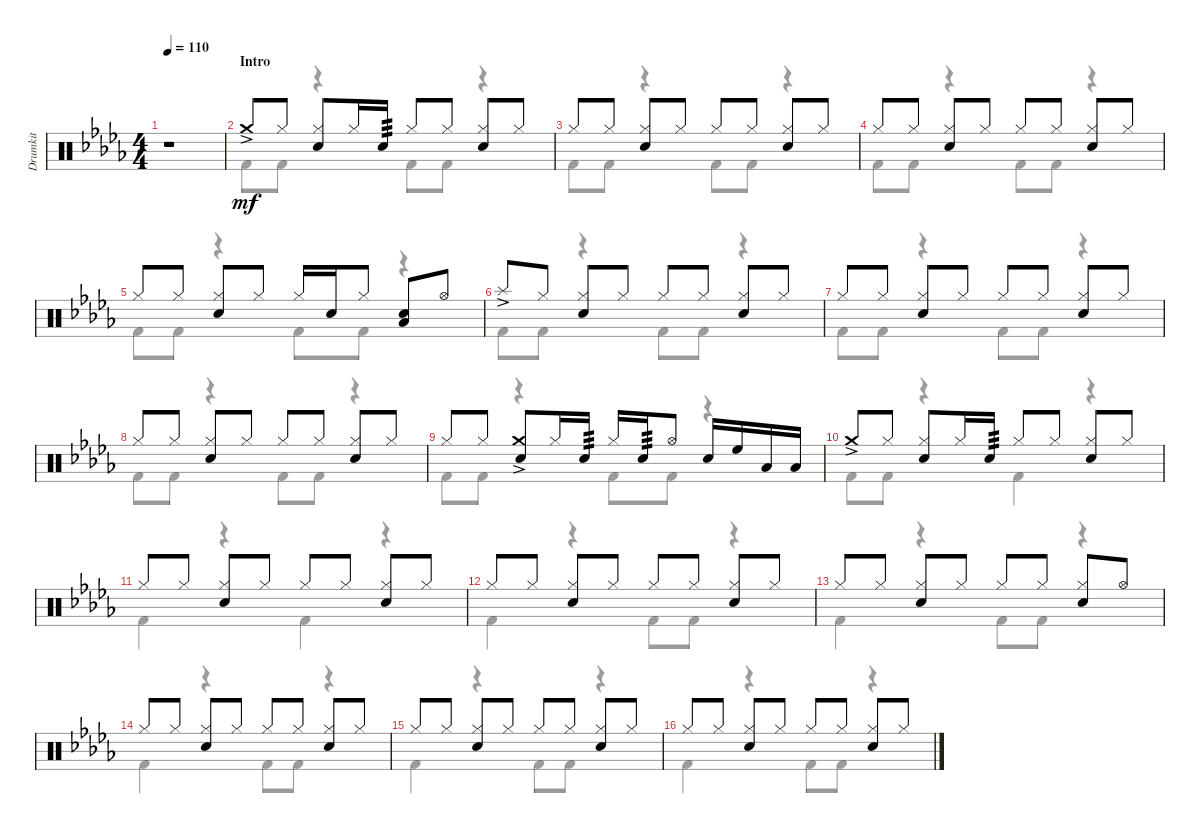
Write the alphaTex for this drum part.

\track ("Drumkit" "Drumkit") {instrument percussion}
\staff {score}
\articulation defaults
\voice
\ts (4 4)
\tempo 110
\clef neutral
\ks db
r.1{dy mf} |
\section ("" "Intro")
"Crash medium (hit)"{ac}.8 "Hi-Hat (closed)".8 ("Snare (hit) 2" "Hi-Hat (closed)").8 "Hi-Hat (closed)".16 "Snare (hit) 2".16{tp 3} "Hi-Hat (closed)".8 "Hi-Hat (closed)".8 ("Snare (hit) 2" "Hi-Hat (closed)").8 "Hi-Hat (closed)".8 |
"Hi-Hat (closed)".8 "Hi-Hat (closed)".8 ("Snare (hit) 2" "Hi-Hat (closed)").8 "Hi-Hat (closed)".8 "Hi-Hat (closed)".8 "Hi-Hat (closed)".8 ("Snare (hit) 2" "Hi-Hat (closed)").8 "Hi-Hat (closed)".8 |
"Hi-Hat (closed)".8 "Hi-Hat (closed)".8 ("Snare (hit) 2" "Hi-Hat (closed)").8 "Hi-Hat (closed)".8 "Hi-Hat (closed)".8 "Hi-Hat (closed)".8 ("Snare (hit) 2" "Hi-Hat (closed)").8 "Hi-Hat (closed)".8 |
"Hi-Hat (closed)".8 "Hi-Hat (closed)".8 ("Snare (hit) 2" "Hi-Hat (closed)").8 "Hi-Hat (closed)".8 "Hi-Hat (closed)".16 "Snare (hit) 2".16 "Hi-Hat (closed)".8 ("Snare (hit) 2" "Low Floor Tom (hit)").8 "Hi-Hat (open)".8 |
"Splash (hit)"{ac}.8 "Hi-Hat (closed)".8 ("Hi-Hat (closed)" "Snare (hit) 2").8 "Hi-Hat (closed)".8 "Hi-Hat (closed)".8 "Hi-Hat (closed)".8 ("Hi-Hat (closed)" "Snare (hit) 2").8 "Hi-Hat (closed)".8 |
"Hi-Hat (closed)".8 "Hi-Hat (closed)".8 ("Snare (hit) 2" "Hi-Hat (closed)").8 "Hi-Hat (closed)".8 "Hi-Hat (closed)".8 "Hi-Hat (closed)".8 ("Snare (hit) 2" "Hi-Hat (closed)").8 "Hi-Hat (closed)".8 |
"Hi-Hat (closed)".8 "Hi-Hat (closed)".8 ("Snare (hit) 2" "Hi-Hat (closed)").8 "Hi-Hat (closed)".8 "Hi-Hat (closed)".8 "Hi-Hat (closed)".8 ("Snare (hit) 2" "Hi-Hat (closed)").8 "Hi-Hat (closed)".8 |
"Hi-Hat (closed)".8 "Hi-Hat (closed)".8 ("Crash medium (hit)"{ac} "Snare (hit) 2"{ac}).8 "Hi-Hat (closed)".16 "Snare (hit) 2".16{tp 3} "Hi-Hat (closed)".16 "Snare (hit) 2".16{tp 3} "Hi-Hat (open)".8 "Snare (hit) 2".16 "High Floor Tom (hit)".16 "Low Floor Tom (hit)".16 "Low Floor Tom (hit)".16 |
\section ("" "")
"Crash medium (hit)"{ac}.8 "Hi-Hat (closed)".8 ("Snare (hit) 2" "Hi-Hat (closed)").8 "Hi-Hat (closed)".16 "Snare (hit) 2".16{tp 3} "Hi-Hat (closed)".8 "Hi-Hat (closed)".8 ("Snare (hit) 2" "Hi-Hat (closed)").8 "Hi-Hat (closed)".8 |
"Hi-Hat (closed)".8 "Hi-Hat (closed)".8 ("Snare (hit) 2" "Hi-Hat (closed)").8 "Hi-Hat (closed)".8 "Hi-Hat (closed)".8 "Hi-Hat (closed)".8 ("Snare (hit) 2" "Hi-Hat (closed)").8 "Hi-Hat (closed)".8 |
"Hi-Hat (closed)".8 "Hi-Hat (closed)".8 ("Snare (hit) 2" "Hi-Hat (closed)").8 "Hi-Hat (closed)".8 "Hi-Hat (closed)".8 "Hi-Hat (closed)".8 ("Snare (hit) 2" "Hi-Hat (closed)").8 "Hi-Hat (closed)".8 |
"Hi-Hat (closed)".8 "Hi-Hat (closed)".8 ("Snare (hit) 2" "Hi-Hat (closed)").8 "Hi-Hat (closed)".8 "Hi-Hat (closed)".8 "Hi-Hat (closed)".8 ("Snare (hit) 2" "Hi-Hat (closed)").8 "Hi-Hat (open)".8 |
"Hi-Hat (closed)".8 "Hi-Hat (closed)".8 ("Snare (hit) 2" "Hi-Hat (closed)").8 "Hi-Hat (closed)".8 "Hi-Hat (closed)".8 "Hi-Hat (closed)".8 ("Snare (hit) 2" "Hi-Hat (closed)").8 "Hi-Hat (closed)".8 |
"Hi-Hat (closed)".8 "Hi-Hat (closed)".8 ("Snare (hit) 2" "Hi-Hat (closed)").8 "Hi-Hat (closed)".8 "Hi-Hat (closed)".8 "Hi-Hat (closed)".8 ("Snare (hit) 2" "Hi-Hat (closed)").8 "Hi-Hat (closed)".8 |
"Hi-Hat (closed)".8 "Hi-Hat (closed)".8 ("Snare (hit) 2" "Hi-Hat (closed)").8 "Hi-Hat (closed)".8 "Hi-Hat (closed)".8 "Hi-Hat (closed)".8 ("Snare (hit) 2" "Hi-Hat (closed)").8 "Hi-Hat (closed)".8
\voice
\clef neutral
\ottava regular
\simile none
\ks db
|
"Kick (hit) 2".8 "Kick (hit) 2".8 r.4 "Kick (hit) 2".8 "Kick (hit) 2".8 r.4 |
"Kick (hit) 2".8 "Kick (hit) 2".8 r.4 "Kick (hit) 2".8 "Kick (hit) 2".8 r.4 |
"Kick (hit) 2".8 "Kick (hit) 2".8 r.4 "Kick (hit) 2".8 "Kick (hit) 2".8 r.4 |
"Kick (hit) 2".8 "Kick (hit) 2".8 r.4 "Kick (hit) 2".8 "Kick (hit) 2".8 r.4 |
"Kick (hit) 2".8 "Kick (hit) 2".8 r.4 "Kick (hit) 2".8 "Kick (hit) 2".8 r.4 |
"Kick (hit) 2".8 "Kick (hit) 2".8 r.4 "Kick (hit) 2".8 "Kick (hit) 2".8 r.4 |
"Kick (hit) 2".8 "Kick (hit) 2".8 r.4 "Kick (hit) 2".8 "Kick (hit) 2".8 r.4 |
"Kick (hit) 2".8 "Kick (hit) 2".8 r.4 "Kick (hit) 2".8 "Kick (hit) 2".8 r.4 |
"Kick (hit) 2".8 "Kick (hit) 2".8 r.4 "Kick (hit) 2".4 r.4 |
"Kick (hit) 2".4 r.4 "Kick (hit) 2".4 r.4 |
"Kick (hit) 2".4 r.4 "Kick (hit) 2".8 "Kick (hit) 2".8 r.4 |
"Kick (hit) 2".4 r.4 "Kick (hit) 2".8 "Kick (hit) 2".8 r.4 |
"Kick (hit) 2".4 r.4 "Kick (hit) 2".8 "Kick (hit) 2".8 r.4 |
"Kick (hit) 2".4 r.4 "Kick (hit) 2".8 "Kick (hit) 2".8 r.4 |
"Kick (hit) 2".4 r.4 "Kick (hit) 2".8 "Kick (hit) 2".8 r.4
